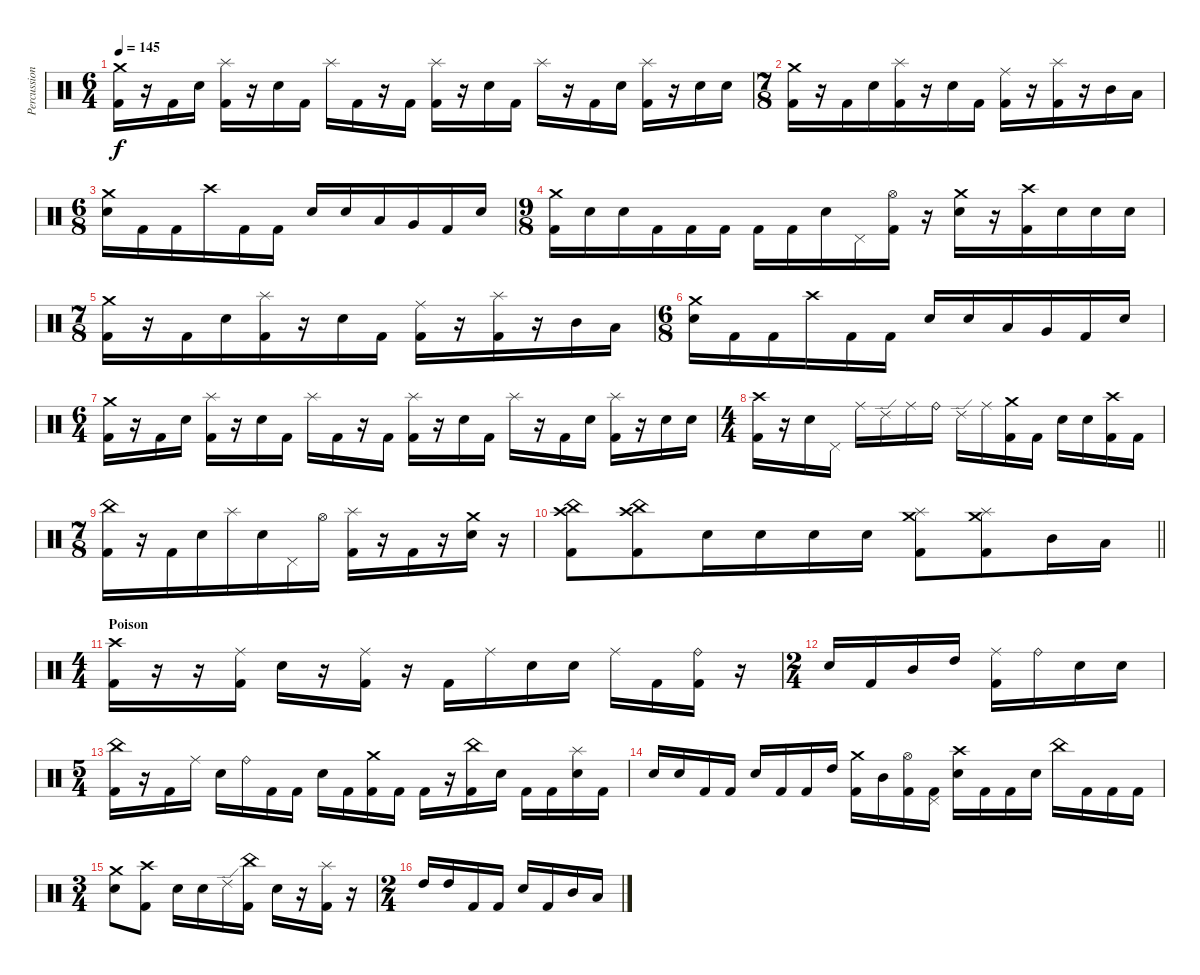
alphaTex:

\track ("Percussion" "Percussion") {instrument percussion}
\staff {score}
\articulation defaults
\ts (6 4)
\tempo 145
\clef neutral
\ks c
("Crash medium (hit)" "Kick (hit) 2").16{dy f} r.16 "Kick (hit) 2".16 "Electric Snare (hit)".16 ("Splash (hit)" "Kick (hit) 2").16 r.16 "Electric Snare (hit)".16 "Kick (hit) 2".16 "Splash (hit)".16 "Kick (hit) 2".16 r.16 "Kick (hit) 2".16 ("Splash (hit)" "Kick (hit) 2").16 r.16 "Electric Snare (hit)".16 "Kick (hit) 2".16 "Splash (hit)".16 r.16 "Kick (hit) 2".16 "Electric Snare (hit)".16 ("Splash (hit)" "Kick (hit) 2").16 r.16 "Electric Snare (hit)".16 "Electric Snare (hit)".16 |
\ts (7 8)
("Crash medium (hit)" "Kick (hit) 2").16 r.16 "Kick (hit) 2".16 "Electric Snare (hit)".16 ("Splash (hit)" "Kick (hit) 2").16 r.16 "Electric Snare (hit)".16 "Kick (hit) 2".16 ("Ride (middle)" "Kick (hit) 2").16 r.16 ("Splash (hit)" "Kick (hit) 2").16 r.16 "Mid Tom (hit)".16 "Low Tom (hit)".16 |
\ts (6 8)
("Crash medium (hit)" "Electric Snare (hit)").16 "Kick (hit) 2".16 "Kick (hit) 2".16 "Crash high (hit)".16 "Kick (hit) 2".16 "Kick (hit) 2".16 "Electric Snare (hit)".16 "Electric Snare (hit)".16 "Low Tom (hit)".16 "Very Low Tom (hit)".16 "Kick (hit) 2".16 "Electric Snare (hit)".16 |
\ts (9 8)
("Crash medium (hit)" "Kick (hit) 2").16 "Electric Snare (hit)".16 "Electric Snare (hit)".16 "Kick (hit) 2".16 "Kick (hit) 2".16 "Kick (hit) 2".16 "Kick (hit) 2".16 "Kick (hit) 2".16 "Electric Snare (hit)".16 "Pedal Hi-Hat (hit)".16 ("Hi-Hat (open)" "Kick (hit) 2").16 r.16 ("Crash medium (hit)" "Electric Snare (hit)").16 r.16 ("Crash high (hit)" "Kick (hit) 2").16 "Electric Snare (hit)".16 "Electric Snare (hit)".16 "Electric Snare (hit)".16 |
\ts (7 8)
("Crash medium (hit)" "Kick (hit) 2").16 r.16 "Kick (hit) 2".16 "Electric Snare (hit)".16 ("Splash (hit)" "Kick (hit) 2").16 r.16 "Electric Snare (hit)".16 "Kick (hit) 2".16 ("Ride (middle)" "Kick (hit) 2").16 r.16 ("Splash (hit)" "Kick (hit) 2").16 r.16 "Mid Tom (hit)".16 "Low Tom (hit)".16 |
\ts (6 8)
("Crash medium (hit)" "Electric Snare (hit)").16 "Kick (hit) 2".16 "Kick (hit) 2".16 "Crash high (hit)".16 "Kick (hit) 2".16 "Kick (hit) 2".16 "Electric Snare (hit)".16 "Electric Snare (hit)".16 "Low Tom (hit)".16 "Very Low Tom (hit)".16 "Kick (hit) 2".16 "Electric Snare (hit)".16 |
\ts (6 4)
("Crash medium (hit)" "Kick (hit) 2").16 r.16 "Kick (hit) 2".16 "Electric Snare (hit)".16 ("Splash (hit)" "Kick (hit) 2").16 r.16 "Electric Snare (hit)".16 "Kick (hit) 2".16 "Splash (hit)".16 "Kick (hit) 2".16 r.16 "Kick (hit) 2".16 ("Splash (hit)" "Kick (hit) 2").16 r.16 "Electric Snare (hit)".16 "Kick (hit) 2".16 "Splash (hit)".16 r.16 "Kick (hit) 2".16 "Electric Snare (hit)".16 ("Splash (hit)" "Kick (hit) 2").16 r.16 "Electric Snare (hit)".16 "Electric Snare (hit)".16 |
\ts (4 4)
("Crash high (hit)" "Kick (hit) 2").16 r.16 "Electric Snare (hit)".16 "Pedal Hi-Hat (hit)".16 "Ride (middle)".16 "Ride (edge) 2".16 "Ride (middle)".16 "Ride (bell)".16 "Ride (edge) 2".16 "Ride (middle)".16 ("Crash medium (hit)" "Kick (hit) 2").16 "Kick (hit) 2".16 "Electric Snare (hit)".16 "Electric Snare (hit)".16 ("Crash high (hit)" "Kick (hit) 2").16 "Kick (hit) 2".16 |
\ts (7 8)
("China (hit)" "Kick (hit) 2").16 r.16 "Kick (hit) 2".16 "Electric Snare (hit)".16 "Splash (hit)".16 "Electric Snare (hit)".16 "Pedal Hi-Hat (hit)".16 "Hi-Hat (open)".16 ("Splash (hit)" "Kick (hit) 2").16 r.16 "Kick (hit) 2".16 r.16 ("Crash medium (hit)" "Electric Snare (hit)").16 r.16 |
\barLineRight lightlight
("Crash high (hit)" "China (hit)" "Kick (hit) 2").8 ("Crash high (hit)" "China (hit)" "Kick (hit) 2").8 "Electric Snare (hit)".16 "Electric Snare (hit)".16 "Electric Snare (hit)".16 "Electric Snare (hit)".16 ("Crash medium (hit)" "Splash (hit)" "Kick (hit) 2").8 ("Crash medium (hit)" "Splash (hit)" "Kick (hit) 2").8 "Mid Tom (hit)".16 "Low Tom (hit)".16 |
\ts (4 4)
\section ("" "Poison")
("Crash high (hit)" "Kick (hit) 2").16 r.16 r.16 ("Ride (middle)" "Kick (hit) 2").16 "Electric Snare (hit)".16 r.16 ("Ride (middle)" "Kick (hit) 2").16 r.16 "Kick (hit) 2".16 "Ride (middle)".16 "Electric Snare (hit)".16 "Electric Snare (hit)".16 "Ride (middle)".16 "Kick (hit) 2".16 ("Ride (bell)" "Kick (hit) 2").16 r.16 |
\ts (2 4)
"Electric Snare (hit)".16 "Kick (hit) 2".16 "Mid Tom (hit)".16 "High Tom (hit)".16 ("Ride (middle)" "Kick (hit) 2").16 "Ride (bell)".16 "Electric Snare (hit)".16 "Electric Snare (hit)".16 |
\ts (5 4)
("China (hit)" "Kick (hit) 2").16 r.16 "Kick (hit) 2".16 "Ride (middle)".16 "Electric Snare (hit)".16 "Ride (bell)".16 "Kick (hit) 2".16 "Kick (hit) 2".16 "Electric Snare (hit)".16 "Kick (hit) 2".16 ("Crash medium (hit)" "Kick (hit) 2").16 "Kick (hit) 2".16 "Kick (hit) 2".16 r.16 ("China (hit)" "Kick (hit) 2").16 "Electric Snare (hit)".16 "Kick (hit) 2".16 "Kick (hit) 2".16 ("Splash (hit)" "Electric Snare (hit)").16 "Kick (hit) 2".16 |
"Electric Snare (hit)".16 "Electric Snare (hit)".16 "Kick (hit) 2".16 "Kick (hit) 2".16 "Electric Snare (hit)".16 "Kick (hit) 2".16 "Kick (hit) 2".16 "High Tom (hit)".16 ("Crash medium (hit)" "Kick (hit) 2").16 "Mid Tom (hit)".16 ("Hi-Hat (open)" "Kick (hit) 2").16 ("Pedal Hi-Hat (hit)" "Kick (hit) 2").16 ("Crash high (hit)" "Electric Snare (hit)").16 "Kick (hit) 2".16 "Kick (hit) 2".16 "Electric Snare (hit)".16 "China (hit)".16 "Kick (hit) 2".16 "Kick (hit) 2".16 "Kick (hit) 2".16 |
\ts (3 4)
("Crash medium (hit)" "Electric Snare (hit)").8 ("Crash high (hit)" "Kick (hit) 2").8 "Electric Snare (hit)".16 "Electric Snare (hit)".16 "Ride (edge) 2".16 ("China (hit)" "Kick (hit) 2").16 "Electric Snare (hit)".16 r.16 ("Splash (hit)" "Kick (hit) 2").16 r.16 |
\ts (2 4)
"High Tom (hit)".16 "High Tom (hit)".16 "Kick (hit) 2".16 "Kick (hit) 2".16 "Electric Snare (hit)".16 "Kick (hit) 2".16 "Mid Tom (hit)".16 "Low Tom (hit)".16
